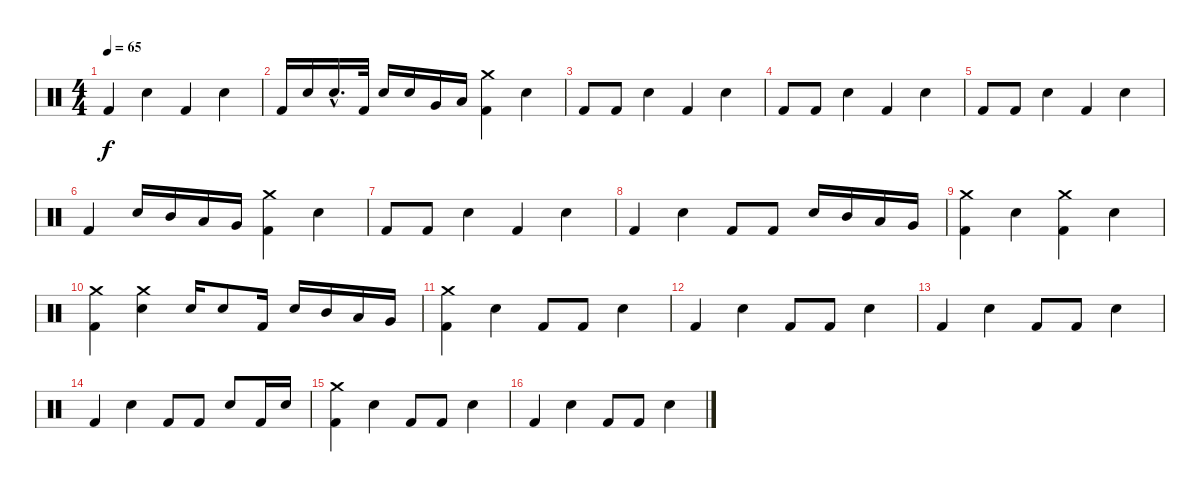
\track "" {instrument percussion}
\staff {score}
\articulation defaults
\ts (4 4)
\tempo 65
\clef neutral
\ks c "Kick (hit) 2".4{dy f} "Snare (hit) 2".4 "Kick (hit) 2".4 "Snare (hit) 2".4
|
"Kick (hit) 2".16 "Snare (hit) 2".16 "Snare (hit) 2"{hac}.16{d} "Kick (hit) 2".32 "Snare (hit) 2".16 "Snare (hit) 2".16 "Very Low Tom (hit)".16 "Low Floor Tom (hit)".16 ("Kick (hit) 2" "Crash medium (hit)").4 "Snare (hit) 2".4 |
"Kick (hit) 2".8 "Kick (hit) 2".8 "Snare (hit) 2".4 "Kick (hit) 2".4 "Snare (hit) 2".4 |
"Kick (hit) 2".8 "Kick (hit) 2".8 "Snare (hit) 2".4 "Kick (hit) 2".4 "Snare (hit) 2".4 |
"Kick (hit) 2".8 "Kick (hit) 2".8 "Snare (hit) 2".4 "Kick (hit) 2".4 "Snare (hit) 2".4 |
"Kick (hit) 2".4 "Electric Snare (hit)".16 "Mid Tom (hit)".16 "Low Tom (hit)".16 "Very Low Tom (hit)".16 ("Kick (hit) 2" "Crash medium (hit)").4 "Snare (hit) 2".4 |
"Kick (hit) 2".8 "Kick (hit) 2".8 "Snare (hit) 2".4 "Kick (hit) 2".4 "Snare (hit) 2".4 |
"Kick (hit) 2".4 "Snare (hit) 2".4 "Kick (hit) 2".8 "Kick (hit) 2".8 "Electric Snare (hit)".16 "Mid Tom (hit)".16 "Low Tom (hit)".16 "Very Low Tom (hit)".16 |
("Kick (hit) 2" "Crash medium (hit)").4 "Snare (hit) 2".4 ("Kick (hit) 2" "Crash medium (hit)").4 "Snare (hit) 2".4 |
("Kick (hit) 2" "Crash medium (hit)").4 ("Snare (hit) 2" "Crash medium (hit)").4 "Electric Snare (hit)".16 "Snare (hit) 2".8 "Kick (hit) 2".16 "Electric Snare (hit)".16 "Mid Tom (hit)".16 "Low Tom (hit)".16 "Very Low Tom (hit)".16 |
("Kick (hit) 2" "Crash medium (hit)").4 "Snare (hit) 2".4 "Kick (hit) 2".8 "Kick (hit) 2".8 "Snare (hit) 2".4 |
"Kick (hit) 2".4 "Snare (hit) 2".4 "Kick (hit) 2".8 "Kick (hit) 2".8 "Snare (hit) 2".4 |
"Kick (hit) 2".4 "Snare (hit) 2".4 "Kick (hit) 2".8 "Kick (hit) 2".8 "Snare (hit) 2".4 |
"Kick (hit) 2".4 "Snare (hit) 2".4 "Kick (hit) 2".8 "Kick (hit) 2".8 "Snare (hit) 2".8 "Kick (hit) 2".16 "Snare (hit) 2".16 |
("Kick (hit) 2" "Crash medium (hit)").4 "Snare (hit) 2".4 "Kick (hit) 2".8 "Kick (hit) 2".8 "Snare (hit) 2".4 |
"Kick (hit) 2".4 "Snare (hit) 2".4 "Kick (hit) 2".8 "Kick (hit) 2".8 "Snare (hit) 2".4
